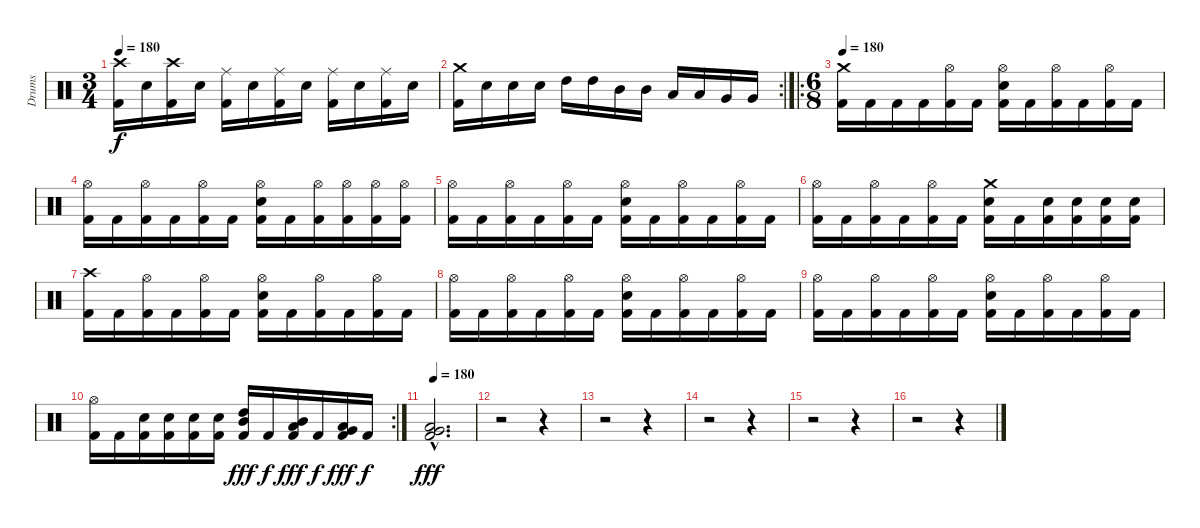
\track ("Drums" "Drums") {instrument percussion}
\staff {score}
\articulation defaults
\ts (3 4)
\tempo 180
\clef neutral
\ks c
("Kick (hit) 2" "Crash high (hit)").16{dy f} "Electric Snare (hit)".16 ("Kick (hit) 2" "Crash high (hit)").16 "Electric Snare (hit)".16 ("Kick (hit) 2" "Ride (middle)").16 "Electric Snare (hit)".16 ("Kick (hit) 2" "Ride (middle)").16 "Electric Snare (hit)".16 ("Kick (hit) 2" "Ride (middle)").16 "Electric Snare (hit)".16 ("Kick (hit) 2" "Ride (middle)").16 "Electric Snare (hit)".16 |
\rc 2
("Kick (hit) 2" "Crash medium (hit)").16 "Electric Snare (hit)".16 "Electric Snare (hit)".16 "Electric Snare (hit)".16 "High Tom (hit)".16 "High Tom (hit)".16 "Mid Tom (hit)".16 "Mid Tom (hit)".16 "Low Tom (hit)".16 "Low Tom (hit)".16 "Very Low Tom (hit)".16 "Very Low Tom (hit)".16 |
\ro
\ts (6 8)
\tempo 180
("Kick (hit) 2" "Crash medium (hit)").16 "Kick (hit) 2".16 "Kick (hit) 2".16 "Kick (hit) 2".16 ("Kick (hit) 2" "Hi-Hat (open)").16 "Kick (hit) 2".16 ("Kick (hit) 2" "Electric Snare (hit)" "Hi-Hat (open)").16 "Kick (hit) 2".16 ("Kick (hit) 2" "Hi-Hat (open)").16 "Kick (hit) 2".16 ("Kick (hit) 2" "Hi-Hat (open)").16 "Kick (hit) 2".16 |
("Kick (hit) 2" "Hi-Hat (open)").16 "Kick (hit) 2".16 ("Kick (hit) 2" "Hi-Hat (open)").16 "Kick (hit) 2".16 ("Kick (hit) 2" "Hi-Hat (open)").16 "Kick (hit) 2".16 ("Kick (hit) 2" "Electric Snare (hit)" "Hi-Hat (open)").16 "Kick (hit) 2".16 ("Kick (hit) 2" "Hi-Hat (open)").16 ("Kick (hit) 2" "Hi-Hat (open)").16 ("Kick (hit) 2" "Hi-Hat (open)").16 ("Kick (hit) 2" "Hi-Hat (open)").16 |
("Kick (hit) 2" "Hi-Hat (open)").16 "Kick (hit) 2".16 ("Kick (hit) 2" "Hi-Hat (open)").16 "Kick (hit) 2".16 ("Kick (hit) 2" "Hi-Hat (open)").16 "Kick (hit) 2".16 ("Kick (hit) 2" "Electric Snare (hit)" "Hi-Hat (open)").16 "Kick (hit) 2".16 ("Kick (hit) 2" "Hi-Hat (open)").16 "Kick (hit) 2".16 ("Kick (hit) 2" "Hi-Hat (open)").16 "Kick (hit) 2".16 |
("Kick (hit) 2" "Hi-Hat (open)").16 "Kick (hit) 2".16 ("Kick (hit) 2" "Hi-Hat (open)").16 "Kick (hit) 2".16 ("Kick (hit) 2" "Hi-Hat (open)").16 "Kick (hit) 2".16 ("Kick (hit) 2" "Electric Snare (hit)" "Crash medium (hit)").16 "Kick (hit) 2".16 ("Kick (hit) 2" "Electric Snare (hit)").16 ("Kick (hit) 2" "Electric Snare (hit)").16 ("Kick (hit) 2" "Electric Snare (hit)").16 ("Kick (hit) 2" "Electric Snare (hit)").16 |
("Kick (hit) 2" "Crash high (hit)").16 "Kick (hit) 2".16 ("Kick (hit) 2" "Hi-Hat (open)").16 "Kick (hit) 2".16 ("Kick (hit) 2" "Hi-Hat (open)").16 "Kick (hit) 2".16 ("Kick (hit) 2" "Electric Snare (hit)" "Hi-Hat (open)").16 "Kick (hit) 2".16 ("Kick (hit) 2" "Hi-Hat (open)").16 "Kick (hit) 2".16 ("Kick (hit) 2" "Hi-Hat (open)").16 "Kick (hit) 2".16 |
("Kick (hit) 2" "Hi-Hat (open)").16 "Kick (hit) 2".16 ("Kick (hit) 2" "Hi-Hat (open)").16 "Kick (hit) 2".16 ("Kick (hit) 2" "Hi-Hat (open)").16 "Kick (hit) 2".16 ("Kick (hit) 2" "Electric Snare (hit)" "Hi-Hat (open)").16 "Kick (hit) 2".16 ("Kick (hit) 2" "Hi-Hat (open)").16 "Kick (hit) 2".16 ("Kick (hit) 2" "Hi-Hat (open)").16 "Kick (hit) 2".16 |
("Kick (hit) 2" "Hi-Hat (open)").16 "Kick (hit) 2".16 ("Kick (hit) 2" "Hi-Hat (open)").16 "Kick (hit) 2".16 ("Kick (hit) 2" "Hi-Hat (open)").16 "Kick (hit) 2".16 ("Kick (hit) 2" "Electric Snare (hit)" "Hi-Hat (open)").16 "Kick (hit) 2".16 ("Kick (hit) 2" "Hi-Hat (open)").16 "Kick (hit) 2".16 ("Kick (hit) 2" "Hi-Hat (open)").16 "Kick (hit) 2".16 |
\rc 2
("Kick (hit) 2" "Hi-Hat (open)").16 "Kick (hit) 2".16 ("Kick (hit) 2" "Electric Snare (hit)").16 ("Kick (hit) 2" "Electric Snare (hit)").16 ("Kick (hit) 2" "Electric Snare (hit)").16 ("Kick (hit) 2" "Electric Snare (hit)").16 ("Kick (hit) 2" "High Tom (hit)" "Mid Tom (hit)").16{dy fff} "Kick (hit) 2".16{dy f} ("Kick (hit) 2" "Mid Tom (hit)" "Low Tom (hit)").16{dy fff} "Kick (hit) 2".16{dy f} ("Kick (hit) 2" "Low Tom (hit)" "Very Low Tom (hit)").16{dy fff} "Kick (hit) 2".16{dy f} |
\tempo 180
("Kick (hit) 2"{hac} "Low Tom (hit)"{hac} "Very Low Tom (hit)"{hac}).2{d dy fff} |
r.2 r.4 |
r.2 r.4 |
r.2 r.4 |
r.2 r.4 |
r.2 r.4
